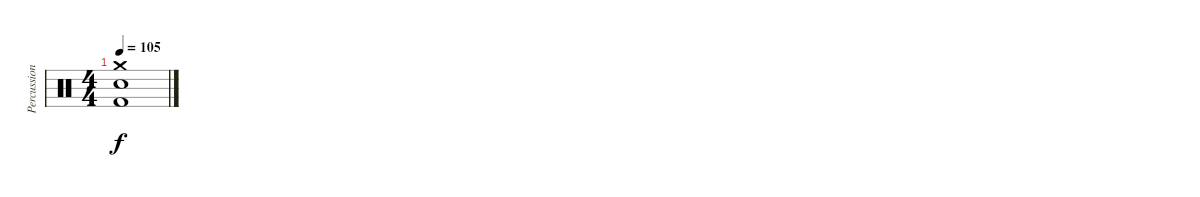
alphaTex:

\track ("Percussion" "Percussion") {instrument percussion}
\staff {score}
\articulation defaults
\ts (4 4)
\tempo 105
\clef neutral
\ks c
("Kick (hit) 2" "Electric Snare (hit)" "Crash medium (hit)").1{dy f}
